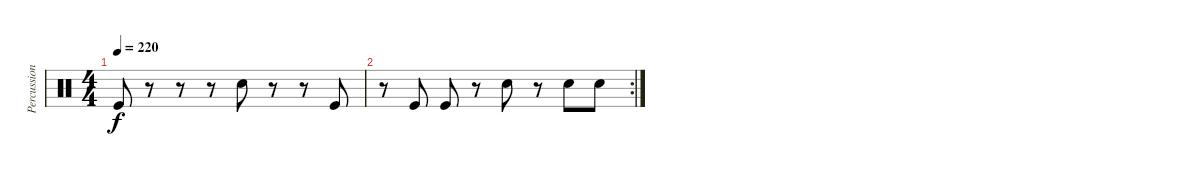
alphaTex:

\track ("Percussion" "Percussion") {instrument percussion}
\staff {score}
\articulation defaults
\ts (4 4)
\tempo 220
\clef neutral
\ks c "Kick (hit)".8{dy f}
r.8 r.8 r.8 "Snare (hit) 2".8 r.8 r.8 "Kick (hit)".8 |
\rc 2
r.8 "Kick (hit)".8 "Kick (hit)".8 r.8 "Snare (hit) 2".8 r.8 "Snare (hit) 2".8 "Snare (hit) 2".8
